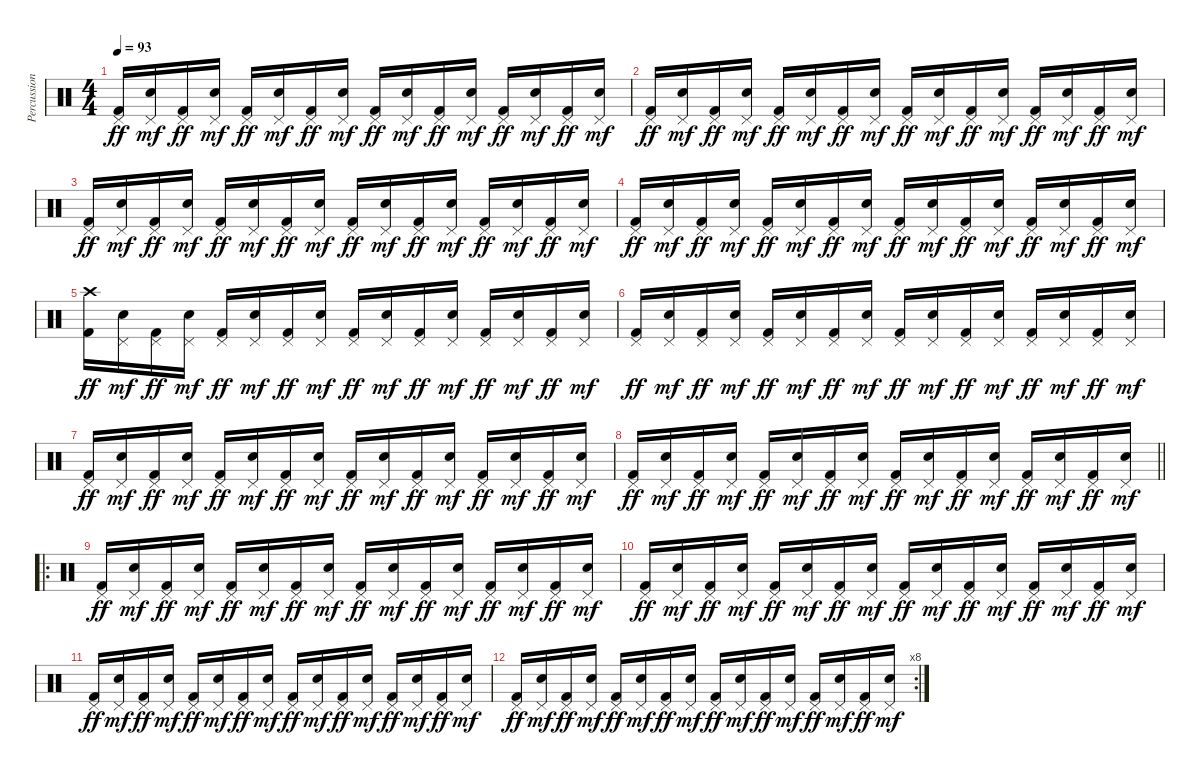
\track ("Percussion" "Percussion") {instrument percussion}
\staff {score}
\articulation defaults
\ts (4 4)
\tempo 93
\clef neutral
\ks c
("Pedal Hi-Hat (hit)" "Kick (hit) 2").16{dy ff} ("Pedal Hi-Hat (hit)" "Electric Snare (hit)").16{dy mf} ("Pedal Hi-Hat (hit)" "Kick (hit) 2").16{dy ff} ("Pedal Hi-Hat (hit)" "Electric Snare (hit)").16{dy mf} ("Pedal Hi-Hat (hit)" "Kick (hit) 2").16{dy ff} ("Pedal Hi-Hat (hit)" "Electric Snare (hit)").16{dy mf} ("Pedal Hi-Hat (hit)" "Kick (hit) 2").16{dy ff} ("Pedal Hi-Hat (hit)" "Electric Snare (hit)").16{dy mf} ("Pedal Hi-Hat (hit)" "Kick (hit) 2").16{dy ff} ("Pedal Hi-Hat (hit)" "Electric Snare (hit)").16{dy mf} ("Pedal Hi-Hat (hit)" "Kick (hit) 2").16{dy ff} ("Pedal Hi-Hat (hit)" "Electric Snare (hit)").16{dy mf} ("Pedal Hi-Hat (hit)" "Kick (hit) 2").16{dy ff} ("Pedal Hi-Hat (hit)" "Electric Snare (hit)").16{dy mf} ("Pedal Hi-Hat (hit)" "Kick (hit) 2").16{dy ff} ("Pedal Hi-Hat (hit)" "Electric Snare (hit)").16{dy mf} |
("Pedal Hi-Hat (hit)" "Kick (hit) 2").16{dy ff} ("Pedal Hi-Hat (hit)" "Electric Snare (hit)").16{dy mf} ("Pedal Hi-Hat (hit)" "Kick (hit) 2").16{dy ff} ("Pedal Hi-Hat (hit)" "Electric Snare (hit)").16{dy mf} ("Pedal Hi-Hat (hit)" "Kick (hit) 2").16{dy ff} ("Pedal Hi-Hat (hit)" "Electric Snare (hit)").16{dy mf} ("Pedal Hi-Hat (hit)" "Kick (hit) 2").16{dy ff} ("Pedal Hi-Hat (hit)" "Electric Snare (hit)").16{dy mf} ("Pedal Hi-Hat (hit)" "Kick (hit) 2").16{dy ff} ("Pedal Hi-Hat (hit)" "Electric Snare (hit)").16{dy mf} ("Pedal Hi-Hat (hit)" "Kick (hit) 2").16{dy ff} ("Pedal Hi-Hat (hit)" "Electric Snare (hit)").16{dy mf} ("Pedal Hi-Hat (hit)" "Kick (hit) 2").16{dy ff} ("Pedal Hi-Hat (hit)" "Electric Snare (hit)").16{dy mf} ("Pedal Hi-Hat (hit)" "Kick (hit) 2").16{dy ff} ("Pedal Hi-Hat (hit)" "Electric Snare (hit)").16{dy mf} |
("Pedal Hi-Hat (hit)" "Kick (hit) 2").16{dy ff} ("Pedal Hi-Hat (hit)" "Electric Snare (hit)").16{dy mf} ("Pedal Hi-Hat (hit)" "Kick (hit) 2").16{dy ff} ("Pedal Hi-Hat (hit)" "Electric Snare (hit)").16{dy mf} ("Pedal Hi-Hat (hit)" "Kick (hit) 2").16{dy ff} ("Pedal Hi-Hat (hit)" "Electric Snare (hit)").16{dy mf} ("Pedal Hi-Hat (hit)" "Kick (hit) 2").16{dy ff} ("Pedal Hi-Hat (hit)" "Electric Snare (hit)").16{dy mf} ("Pedal Hi-Hat (hit)" "Kick (hit) 2").16{dy ff} ("Pedal Hi-Hat (hit)" "Electric Snare (hit)").16{dy mf} ("Pedal Hi-Hat (hit)" "Kick (hit) 2").16{dy ff} ("Pedal Hi-Hat (hit)" "Electric Snare (hit)").16{dy mf} ("Pedal Hi-Hat (hit)" "Kick (hit) 2").16{dy ff} ("Pedal Hi-Hat (hit)" "Electric Snare (hit)").16{dy mf} ("Pedal Hi-Hat (hit)" "Kick (hit) 2").16{dy ff} ("Pedal Hi-Hat (hit)" "Electric Snare (hit)").16{dy mf} |
("Pedal Hi-Hat (hit)" "Kick (hit) 2").16{dy ff} ("Pedal Hi-Hat (hit)" "Electric Snare (hit)").16{dy mf} ("Pedal Hi-Hat (hit)" "Kick (hit) 2").16{dy ff} ("Pedal Hi-Hat (hit)" "Electric Snare (hit)").16{dy mf} ("Pedal Hi-Hat (hit)" "Kick (hit) 2").16{dy ff} ("Pedal Hi-Hat (hit)" "Electric Snare (hit)").16{dy mf} ("Pedal Hi-Hat (hit)" "Kick (hit) 2").16{dy ff} ("Pedal Hi-Hat (hit)" "Electric Snare (hit)").16{dy mf} ("Pedal Hi-Hat (hit)" "Kick (hit) 2").16{dy ff} ("Pedal Hi-Hat (hit)" "Electric Snare (hit)").16{dy mf} ("Pedal Hi-Hat (hit)" "Kick (hit) 2").16{dy ff} ("Pedal Hi-Hat (hit)" "Electric Snare (hit)").16{dy mf} ("Pedal Hi-Hat (hit)" "Kick (hit) 2").16{dy ff} ("Pedal Hi-Hat (hit)" "Electric Snare (hit)").16{dy mf} ("Pedal Hi-Hat (hit)" "Kick (hit) 2").16{dy ff} ("Pedal Hi-Hat (hit)" "Electric Snare (hit)").16{dy mf} |
("Crash high (hit)" "Kick (hit) 2").16{dy ff} ("Pedal Hi-Hat (hit)" "Electric Snare (hit)").16{dy mf} ("Pedal Hi-Hat (hit)" "Kick (hit) 2").16{dy ff} ("Pedal Hi-Hat (hit)" "Electric Snare (hit)").16{dy mf} ("Pedal Hi-Hat (hit)" "Kick (hit) 2").16{dy ff} ("Pedal Hi-Hat (hit)" "Electric Snare (hit)").16{dy mf} ("Pedal Hi-Hat (hit)" "Kick (hit) 2").16{dy ff} ("Pedal Hi-Hat (hit)" "Electric Snare (hit)").16{dy mf} ("Pedal Hi-Hat (hit)" "Kick (hit) 2").16{dy ff} ("Pedal Hi-Hat (hit)" "Electric Snare (hit)").16{dy mf} ("Pedal Hi-Hat (hit)" "Kick (hit) 2").16{dy ff} ("Pedal Hi-Hat (hit)" "Electric Snare (hit)").16{dy mf} ("Pedal Hi-Hat (hit)" "Kick (hit) 2").16{dy ff} ("Pedal Hi-Hat (hit)" "Electric Snare (hit)").16{dy mf} ("Pedal Hi-Hat (hit)" "Kick (hit) 2").16{dy ff} ("Pedal Hi-Hat (hit)" "Electric Snare (hit)").16{dy mf} |
("Pedal Hi-Hat (hit)" "Kick (hit) 2").16{dy ff} ("Pedal Hi-Hat (hit)" "Electric Snare (hit)").16{dy mf} ("Pedal Hi-Hat (hit)" "Kick (hit) 2").16{dy ff} ("Pedal Hi-Hat (hit)" "Electric Snare (hit)").16{dy mf} ("Pedal Hi-Hat (hit)" "Kick (hit) 2").16{dy ff} ("Pedal Hi-Hat (hit)" "Electric Snare (hit)").16{dy mf} ("Pedal Hi-Hat (hit)" "Kick (hit) 2").16{dy ff} ("Pedal Hi-Hat (hit)" "Electric Snare (hit)").16{dy mf} ("Pedal Hi-Hat (hit)" "Kick (hit) 2").16{dy ff} ("Pedal Hi-Hat (hit)" "Electric Snare (hit)").16{dy mf} ("Pedal Hi-Hat (hit)" "Kick (hit) 2").16{dy ff} ("Pedal Hi-Hat (hit)" "Electric Snare (hit)").16{dy mf} ("Pedal Hi-Hat (hit)" "Kick (hit) 2").16{dy ff} ("Pedal Hi-Hat (hit)" "Electric Snare (hit)").16{dy mf} ("Pedal Hi-Hat (hit)" "Kick (hit) 2").16{dy ff} ("Pedal Hi-Hat (hit)" "Electric Snare (hit)").16{dy mf} |
("Pedal Hi-Hat (hit)" "Kick (hit) 2").16{dy ff} ("Pedal Hi-Hat (hit)" "Electric Snare (hit)").16{dy mf} ("Pedal Hi-Hat (hit)" "Kick (hit) 2").16{dy ff} ("Pedal Hi-Hat (hit)" "Electric Snare (hit)").16{dy mf} ("Pedal Hi-Hat (hit)" "Kick (hit) 2").16{dy ff} ("Pedal Hi-Hat (hit)" "Electric Snare (hit)").16{dy mf} ("Pedal Hi-Hat (hit)" "Kick (hit) 2").16{dy ff} ("Pedal Hi-Hat (hit)" "Electric Snare (hit)").16{dy mf} ("Pedal Hi-Hat (hit)" "Kick (hit) 2").16{dy ff} ("Pedal Hi-Hat (hit)" "Electric Snare (hit)").16{dy mf} ("Pedal Hi-Hat (hit)" "Kick (hit) 2").16{dy ff} ("Pedal Hi-Hat (hit)" "Electric Snare (hit)").16{dy mf} ("Pedal Hi-Hat (hit)" "Kick (hit) 2").16{dy ff} ("Pedal Hi-Hat (hit)" "Electric Snare (hit)").16{dy mf} ("Pedal Hi-Hat (hit)" "Kick (hit) 2").16{dy ff} ("Pedal Hi-Hat (hit)" "Electric Snare (hit)").16{dy mf} |
\barLineRight lightlight
("Pedal Hi-Hat (hit)" "Kick (hit) 2").16{dy ff} ("Pedal Hi-Hat (hit)" "Electric Snare (hit)").16{dy mf} ("Pedal Hi-Hat (hit)" "Kick (hit) 2").16{dy ff} ("Pedal Hi-Hat (hit)" "Electric Snare (hit)").16{dy mf} ("Pedal Hi-Hat (hit)" "Kick (hit) 2").16{dy ff} ("Pedal Hi-Hat (hit)" "Electric Snare (hit)").16{dy mf} ("Pedal Hi-Hat (hit)" "Kick (hit) 2").16{dy ff} ("Pedal Hi-Hat (hit)" "Electric Snare (hit)").16{dy mf} ("Pedal Hi-Hat (hit)" "Kick (hit) 2").16{dy ff} ("Pedal Hi-Hat (hit)" "Electric Snare (hit)").16{dy mf} ("Pedal Hi-Hat (hit)" "Kick (hit) 2").16{dy ff} ("Pedal Hi-Hat (hit)" "Electric Snare (hit)").16{dy mf} ("Pedal Hi-Hat (hit)" "Kick (hit) 2").16{dy ff} ("Pedal Hi-Hat (hit)" "Electric Snare (hit)").16{dy mf} ("Pedal Hi-Hat (hit)" "Kick (hit) 2").16{dy ff} ("Pedal Hi-Hat (hit)" "Electric Snare (hit)").16{dy mf} |
\ro
("Pedal Hi-Hat (hit)" "Kick (hit) 2").16{dy ff} ("Pedal Hi-Hat (hit)" "Electric Snare (hit)").16{dy mf} ("Pedal Hi-Hat (hit)" "Kick (hit) 2").16{dy ff} ("Pedal Hi-Hat (hit)" "Electric Snare (hit)").16{dy mf} ("Pedal Hi-Hat (hit)" "Kick (hit) 2").16{dy ff} ("Pedal Hi-Hat (hit)" "Electric Snare (hit)").16{dy mf} ("Pedal Hi-Hat (hit)" "Kick (hit) 2").16{dy ff} ("Pedal Hi-Hat (hit)" "Electric Snare (hit)").16{dy mf} ("Pedal Hi-Hat (hit)" "Kick (hit) 2").16{dy ff} ("Pedal Hi-Hat (hit)" "Electric Snare (hit)").16{dy mf} ("Pedal Hi-Hat (hit)" "Kick (hit) 2").16{dy ff} ("Pedal Hi-Hat (hit)" "Electric Snare (hit)").16{dy mf} ("Pedal Hi-Hat (hit)" "Kick (hit) 2").16{dy ff} ("Pedal Hi-Hat (hit)" "Electric Snare (hit)").16{dy mf} ("Pedal Hi-Hat (hit)" "Kick (hit) 2").16{dy ff} ("Pedal Hi-Hat (hit)" "Electric Snare (hit)").16{dy mf} |
("Pedal Hi-Hat (hit)" "Kick (hit) 2").16{dy ff} ("Pedal Hi-Hat (hit)" "Electric Snare (hit)").16{dy mf} ("Pedal Hi-Hat (hit)" "Kick (hit) 2").16{dy ff} ("Pedal Hi-Hat (hit)" "Electric Snare (hit)").16{dy mf} ("Pedal Hi-Hat (hit)" "Kick (hit) 2").16{dy ff} ("Pedal Hi-Hat (hit)" "Electric Snare (hit)").16{dy mf} ("Pedal Hi-Hat (hit)" "Kick (hit) 2").16{dy ff} ("Pedal Hi-Hat (hit)" "Electric Snare (hit)").16{dy mf} ("Pedal Hi-Hat (hit)" "Kick (hit) 2").16{dy ff} ("Pedal Hi-Hat (hit)" "Electric Snare (hit)").16{dy mf} ("Pedal Hi-Hat (hit)" "Kick (hit) 2").16{dy ff} ("Pedal Hi-Hat (hit)" "Electric Snare (hit)").16{dy mf} ("Pedal Hi-Hat (hit)" "Kick (hit) 2").16{dy ff} ("Pedal Hi-Hat (hit)" "Electric Snare (hit)").16{dy mf} ("Pedal Hi-Hat (hit)" "Kick (hit) 2").16{dy ff} ("Pedal Hi-Hat (hit)" "Electric Snare (hit)").16{dy mf} |
("Pedal Hi-Hat (hit)" "Kick (hit) 2").16{dy ff} ("Pedal Hi-Hat (hit)" "Electric Snare (hit)").16{dy mf} ("Pedal Hi-Hat (hit)" "Kick (hit) 2").16{dy ff} ("Pedal Hi-Hat (hit)" "Electric Snare (hit)").16{dy mf} ("Pedal Hi-Hat (hit)" "Kick (hit) 2").16{dy ff} ("Pedal Hi-Hat (hit)" "Electric Snare (hit)").16{dy mf} ("Pedal Hi-Hat (hit)" "Kick (hit) 2").16{dy ff} ("Pedal Hi-Hat (hit)" "Electric Snare (hit)").16{dy mf} ("Pedal Hi-Hat (hit)" "Kick (hit) 2").16{dy ff} ("Pedal Hi-Hat (hit)" "Electric Snare (hit)").16{dy mf} ("Pedal Hi-Hat (hit)" "Kick (hit) 2").16{dy ff} ("Pedal Hi-Hat (hit)" "Electric Snare (hit)").16{dy mf} ("Pedal Hi-Hat (hit)" "Kick (hit) 2").16{dy ff} ("Pedal Hi-Hat (hit)" "Electric Snare (hit)").16{dy mf} ("Pedal Hi-Hat (hit)" "Kick (hit) 2").16{dy ff} ("Pedal Hi-Hat (hit)" "Electric Snare (hit)").16{dy mf} |
\rc 8
("Pedal Hi-Hat (hit)" "Kick (hit) 2").16{dy ff} ("Pedal Hi-Hat (hit)" "Electric Snare (hit)").16{dy mf} ("Pedal Hi-Hat (hit)" "Kick (hit) 2").16{dy ff} ("Pedal Hi-Hat (hit)" "Electric Snare (hit)").16{dy mf} ("Pedal Hi-Hat (hit)" "Kick (hit) 2").16{dy ff} ("Pedal Hi-Hat (hit)" "Electric Snare (hit)").16{dy mf} ("Pedal Hi-Hat (hit)" "Kick (hit) 2").16{dy ff} ("Pedal Hi-Hat (hit)" "Electric Snare (hit)").16{dy mf} ("Pedal Hi-Hat (hit)" "Kick (hit) 2").16{dy ff} ("Pedal Hi-Hat (hit)" "Electric Snare (hit)").16{dy mf} ("Pedal Hi-Hat (hit)" "Kick (hit) 2").16{dy ff} ("Pedal Hi-Hat (hit)" "Electric Snare (hit)").16{dy mf} ("Pedal Hi-Hat (hit)" "Kick (hit) 2").16{dy ff} ("Pedal Hi-Hat (hit)" "Electric Snare (hit)").16{dy mf} ("Pedal Hi-Hat (hit)" "Kick (hit) 2").16{dy ff} ("Pedal Hi-Hat (hit)" "Electric Snare (hit)").16{dy mf}
